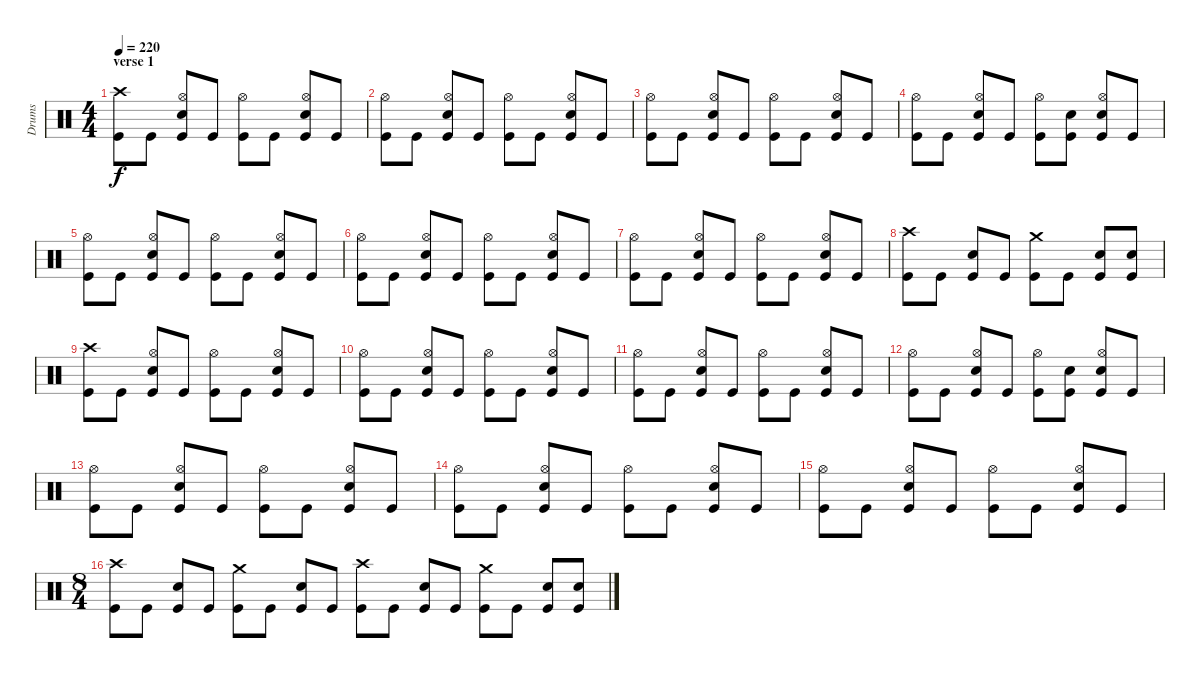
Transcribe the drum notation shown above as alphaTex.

\track ("Drums" "Drums") {instrument percussion}
\staff {score}
\articulation defaults
\ts (4 4)
\section ("" "verse 1")
\tempo 220
\clef neutral
\ks c
("Crash high (hit)" "Kick (hit)").8{dy f} "Kick (hit)".8 ("Hi-Hat (open)" "Electric Snare (hit)" "Kick (hit)").8 "Kick (hit)".8 ("Hi-Hat (open)" "Kick (hit)").8 "Kick (hit)".8 ("Hi-Hat (open)" "Electric Snare (hit)" "Kick (hit)").8 "Kick (hit)".8 |
("Hi-Hat (open)" "Kick (hit)").8 "Kick (hit)".8 ("Hi-Hat (open)" "Electric Snare (hit)" "Kick (hit)").8 "Kick (hit)".8 ("Hi-Hat (open)" "Kick (hit)").8 "Kick (hit)".8 ("Hi-Hat (open)" "Electric Snare (hit)" "Kick (hit)").8 "Kick (hit)".8 |
("Hi-Hat (open)" "Kick (hit)").8 "Kick (hit)".8 ("Hi-Hat (open)" "Electric Snare (hit)" "Kick (hit)").8 "Kick (hit)".8 ("Hi-Hat (open)" "Kick (hit)").8 "Kick (hit)".8 ("Hi-Hat (open)" "Electric Snare (hit)" "Kick (hit)").8 "Kick (hit)".8 |
("Hi-Hat (open)" "Kick (hit)").8 "Kick (hit)".8 ("Hi-Hat (open)" "Electric Snare (hit)" "Kick (hit)").8 "Kick (hit)".8 ("Hi-Hat (open)" "Kick (hit)").8 ("Electric Snare (hit)" "Kick (hit)").8 ("Hi-Hat (open)" "Electric Snare (hit)" "Kick (hit)").8 "Kick (hit)".8 |
("Hi-Hat (open)" "Kick (hit)").8 "Kick (hit)".8 ("Hi-Hat (open)" "Electric Snare (hit)" "Kick (hit)").8 "Kick (hit)".8 ("Hi-Hat (open)" "Kick (hit)").8 "Kick (hit)".8 ("Hi-Hat (open)" "Electric Snare (hit)" "Kick (hit)").8 "Kick (hit)".8 |
("Hi-Hat (open)" "Kick (hit)").8 "Kick (hit)".8 ("Hi-Hat (open)" "Electric Snare (hit)" "Kick (hit)").8 "Kick (hit)".8 ("Hi-Hat (open)" "Kick (hit)").8 "Kick (hit)".8 ("Hi-Hat (open)" "Electric Snare (hit)" "Kick (hit)").8 "Kick (hit)".8 |
("Hi-Hat (open)" "Kick (hit)").8 "Kick (hit)".8 ("Hi-Hat (open)" "Electric Snare (hit)" "Kick (hit)").8 "Kick (hit)".8 ("Hi-Hat (open)" "Kick (hit)").8 "Kick (hit)".8 ("Hi-Hat (open)" "Electric Snare (hit)" "Kick (hit)").8 "Kick (hit)".8 |
("Crash high (hit)" "Kick (hit)").8 "Kick (hit)".8 ("Electric Snare (hit)" "Kick (hit)").8 "Kick (hit)".8 ("Crash medium (hit)" "Kick (hit)").8 "Kick (hit)".8 ("Electric Snare (hit)" "Kick (hit)").8 ("Electric Snare (hit)" "Kick (hit)").8 |
("Crash high (hit)" "Kick (hit)").8 "Kick (hit)".8 ("Hi-Hat (open)" "Electric Snare (hit)" "Kick (hit)").8 "Kick (hit)".8 ("Hi-Hat (open)" "Kick (hit)").8 "Kick (hit)".8 ("Hi-Hat (open)" "Electric Snare (hit)" "Kick (hit)").8 "Kick (hit)".8 |
("Hi-Hat (open)" "Kick (hit)").8 "Kick (hit)".8 ("Hi-Hat (open)" "Electric Snare (hit)" "Kick (hit)").8 "Kick (hit)".8 ("Hi-Hat (open)" "Kick (hit)").8 "Kick (hit)".8 ("Hi-Hat (open)" "Electric Snare (hit)" "Kick (hit)").8 "Kick (hit)".8 |
("Hi-Hat (open)" "Kick (hit)").8 "Kick (hit)".8 ("Hi-Hat (open)" "Electric Snare (hit)" "Kick (hit)").8 "Kick (hit)".8 ("Hi-Hat (open)" "Kick (hit)").8 "Kick (hit)".8 ("Hi-Hat (open)" "Electric Snare (hit)" "Kick (hit)").8 "Kick (hit)".8 |
("Hi-Hat (open)" "Kick (hit)").8 "Kick (hit)".8 ("Hi-Hat (open)" "Electric Snare (hit)" "Kick (hit)").8 "Kick (hit)".8 ("Hi-Hat (open)" "Kick (hit)").8 ("Electric Snare (hit)" "Kick (hit)").8 ("Hi-Hat (open)" "Electric Snare (hit)" "Kick (hit)").8 "Kick (hit)".8 |
("Hi-Hat (open)" "Kick (hit)").8 "Kick (hit)".8 ("Hi-Hat (open)" "Electric Snare (hit)" "Kick (hit)").8 "Kick (hit)".8 ("Hi-Hat (open)" "Kick (hit)").8 "Kick (hit)".8 ("Hi-Hat (open)" "Electric Snare (hit)" "Kick (hit)").8 "Kick (hit)".8 |
("Hi-Hat (open)" "Kick (hit)").8 "Kick (hit)".8 ("Hi-Hat (open)" "Electric Snare (hit)" "Kick (hit)").8 "Kick (hit)".8 ("Hi-Hat (open)" "Kick (hit)").8 "Kick (hit)".8 ("Hi-Hat (open)" "Electric Snare (hit)" "Kick (hit)").8 "Kick (hit)".8 |
("Hi-Hat (open)" "Kick (hit)").8 "Kick (hit)".8 ("Hi-Hat (open)" "Electric Snare (hit)" "Kick (hit)").8 "Kick (hit)".8 ("Hi-Hat (open)" "Kick (hit)").8 "Kick (hit)".8 ("Hi-Hat (open)" "Electric Snare (hit)" "Kick (hit)").8 "Kick (hit)".8 |
\ts (8 4)
("Crash high (hit)" "Kick (hit)").8 "Kick (hit)".8 ("Electric Snare (hit)" "Kick (hit)").8 "Kick (hit)".8 ("Crash medium (hit)" "Kick (hit)").8 "Kick (hit)".8 ("Electric Snare (hit)" "Kick (hit)").8 "Kick (hit)".8 ("Crash high (hit)" "Kick (hit)").8 "Kick (hit)".8 ("Electric Snare (hit)" "Kick (hit)").8 "Kick (hit)".8 ("Crash medium (hit)" "Kick (hit)").8 "Kick (hit)".8 ("Electric Snare (hit)" "Kick (hit)").8 ("Electric Snare (hit)" "Kick (hit)").8
